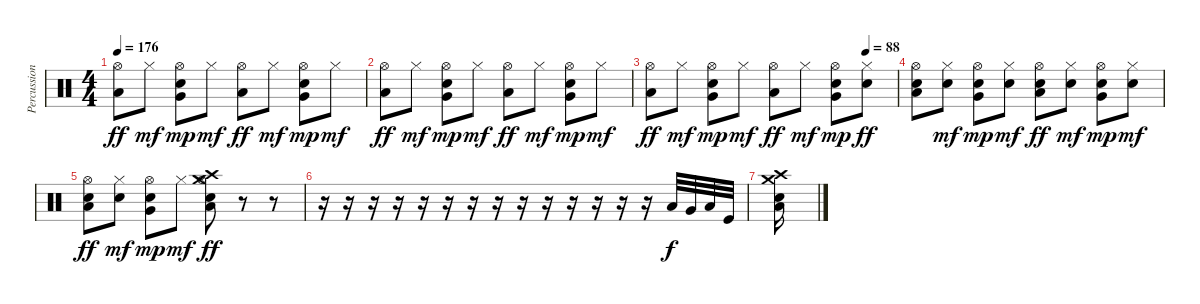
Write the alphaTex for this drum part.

\track ("Percussions" "Percussion") {instrument percussion}
\staff {score}
\articulation defaults
\ts (4 4)
\tempo 176
\clef neutral
\ks c
("Hi-Hat (open)" "Low Floor Tom (hit)").8{dy ff} "Hi-Hat (closed)".8{dy mf} ("Hi-Hat (open)" "Electric Snare (hit)" "Very Low Tom (hit)").8{dy mp} "Hi-Hat (closed)".8{dy mf} ("Hi-Hat (open)" "Low Floor Tom (hit)").8{dy ff} "Hi-Hat (closed)".8{dy mf} ("Hi-Hat (open)" "Electric Snare (hit)" "Very Low Tom (hit)").8{dy mp} "Hi-Hat (closed)".8{dy mf} |
("Hi-Hat (open)" "Low Floor Tom (hit)").8{dy ff} "Hi-Hat (closed)".8{dy mf} ("Hi-Hat (open)" "Electric Snare (hit)" "Very Low Tom (hit)").8{dy mp} "Hi-Hat (closed)".8{dy mf} ("Hi-Hat (open)" "Low Floor Tom (hit)").8{dy ff} "Hi-Hat (closed)".8{dy mf} ("Hi-Hat (open)" "Electric Snare (hit)" "Very Low Tom (hit)").8{dy mp} "Hi-Hat (closed)".8{dy mf} |
\tempo (88 0.875)
("Hi-Hat (open)" "Low Floor Tom (hit)").8{dy ff} "Hi-Hat (closed)".8{dy mf} ("Hi-Hat (open)" "Electric Snare (hit)" "Very Low Tom (hit)").8{dy mp} "Hi-Hat (closed)".8{dy mf} ("Hi-Hat (open)" "Low Floor Tom (hit)").8{dy ff} "Hi-Hat (closed)".8{dy mf} ("Hi-Hat (open)" "Very Low Tom (hit)" "Electric Snare (hit)").8{dy mp} ("Hi-Hat (closed)" "Electric Snare (hit)").8{dy ff} |
("Hi-Hat (open)" "Low Floor Tom (hit)" "Electric Snare (hit)").8 ("Hi-Hat (closed)" "Electric Snare (hit)").8{dy mf} ("Hi-Hat (open)" "Electric Snare (hit)" "Very Low Tom (hit)").8{dy mp} ("Hi-Hat (closed)" "Electric Snare (hit)").8{dy mf} ("Hi-Hat (open)" "Low Floor Tom (hit)" "Electric Snare (hit)").8{dy ff} ("Hi-Hat (closed)" "Electric Snare (hit)").8{dy mf} ("Hi-Hat (open)" "Electric Snare (hit)" "Very Low Tom (hit)").8{dy mp} ("Hi-Hat (closed)" "Electric Snare (hit)").8{dy mf} |
("Hi-Hat (open)" "Low Floor Tom (hit)" "Electric Snare (hit)").8{dy ff} ("Hi-Hat (closed)" "Electric Snare (hit)").8{dy mf} ("Hi-Hat (open)" "Electric Snare (hit)" "Very Low Tom (hit)").8{dy mp} "Hi-Hat (closed)".8{dy mf} ("Crash high (hit)" "Crash medium (hit)" "Hi-Hat (open)" "Low Floor Tom (hit)" "Electric Snare (hit)").8{dy ff} r.8 r.8 |
r.16 r.16 r.16 r.16 r.16 r.16 r.16 r.16 r.16 r.16 r.16 r.16 r.16 r.16 "Low Tom (hit)".32{dy f} "Very Low Tom (hit)".32 "Low Floor Tom (hit)".32 "Kick (hit)".32 |
("Crash high (hit)" "Crash medium (hit)" "Electric Snare (hit)" "Low Floor Tom (hit)").16
